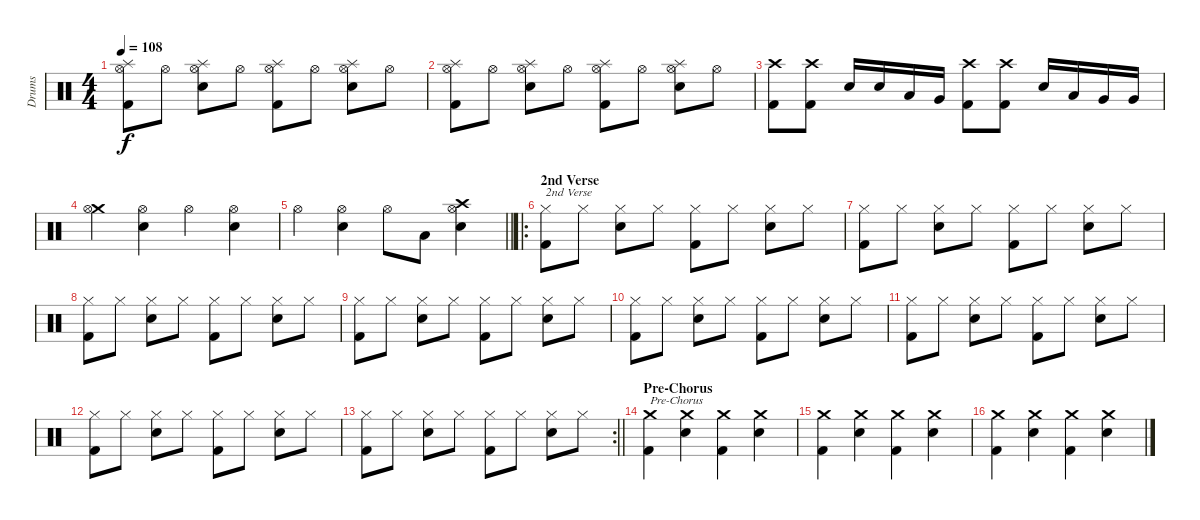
\track ("Drums" "Drums") {instrument percussion}
\staff {score}
\articulation defaults
\ts (4 4)
\tempo 108
\clef neutral
\ks c
("Splash (hit)" "Hi-Hat (open)" "Kick (hit) 2").8{dy f} "Hi-Hat (open)".8 ("Splash (hit)" "Hi-Hat (open)" "Snare (hit) 2").8 "Hi-Hat (open)".8 ("Splash (hit)" "Hi-Hat (open)" "Kick (hit) 2").8 "Hi-Hat (open)".8 ("Splash (hit)" "Hi-Hat (open)" "Snare (hit) 2").8 "Hi-Hat (open)".8 |
("Splash (hit)" "Hi-Hat (open)" "Kick (hit) 2").8 "Hi-Hat (open)".8 ("Splash (hit)" "Hi-Hat (open)" "Snare (hit) 2").8 "Hi-Hat (open)".8 ("Splash (hit)" "Hi-Hat (open)" "Kick (hit) 2").8 "Hi-Hat (open)".8 ("Splash (hit)" "Hi-Hat (open)" "Snare (hit) 2").8 "Hi-Hat (open)".8 |
("Crash high (hit)" "Kick (hit) 2").8 ("Crash high (hit)" "Kick (hit) 2").8 "Snare (hit) 2".16 "Snare (hit) 2".16 "Low Tom (hit)".16 "Very Low Tom (hit)".16 ("Crash high (hit)" "Kick (hit) 2").8 ("Crash high (hit)" "Kick (hit) 2").8 "Snare (hit) 2".16 "Low Tom (hit)".16 "Very Low Tom (hit)".16 "Very Low Tom (hit)".16 |
("Crash medium (hit)" "Hi-Hat (open)").4 ("Hi-Hat (open)" "Snare (hit) 2").4 "Hi-Hat (open)".4 ("Hi-Hat (open)" "Snare (hit) 2").4 |
\barLineRight lightlight "Hi-Hat (open)".4
("Hi-Hat (open)" "Snare (hit) 2").4 "Hi-Hat (open)".8 "Low Floor Tom (hit)".8 ("Crash high (hit)" "Hi-Hat (open)" "Snare (hit) 2").4 |
\ro
\section ("" "2nd Verse")
("Hi-Hat (closed)" "Kick (hit) 2").8{txt "2nd Verse"} "Hi-Hat (closed)".8 ("Hi-Hat (closed)" "Snare (hit) 2").8 "Hi-Hat (closed)".8 ("Hi-Hat (closed)" "Kick (hit) 2").8 "Hi-Hat (closed)".8 ("Hi-Hat (closed)" "Snare (hit) 2").8 "Hi-Hat (closed)".8 |
("Hi-Hat (closed)" "Kick (hit) 2").8 "Hi-Hat (closed)".8 ("Hi-Hat (closed)" "Snare (hit) 2").8 "Hi-Hat (closed)".8 ("Hi-Hat (closed)" "Kick (hit) 2").8 "Hi-Hat (closed)".8 ("Hi-Hat (closed)" "Snare (hit) 2").8 "Hi-Hat (closed)".8 |
("Hi-Hat (closed)" "Kick (hit) 2").8 "Hi-Hat (closed)".8 ("Hi-Hat (closed)" "Snare (hit) 2").8 "Hi-Hat (closed)".8 ("Hi-Hat (closed)" "Kick (hit) 2").8 "Hi-Hat (closed)".8 ("Hi-Hat (closed)" "Snare (hit) 2").8 "Hi-Hat (closed)".8 |
("Hi-Hat (closed)" "Kick (hit) 2").8 "Hi-Hat (closed)".8 ("Hi-Hat (closed)" "Snare (hit) 2").8 "Hi-Hat (closed)".8 ("Hi-Hat (closed)" "Kick (hit) 2").8 "Hi-Hat (closed)".8 ("Hi-Hat (closed)" "Snare (hit) 2").8 "Hi-Hat (closed)".8 |
("Hi-Hat (closed)" "Kick (hit) 2").8 "Hi-Hat (closed)".8 ("Hi-Hat (closed)" "Snare (hit) 2").8 "Hi-Hat (closed)".8 ("Hi-Hat (closed)" "Kick (hit) 2").8 "Hi-Hat (closed)".8 ("Hi-Hat (closed)" "Snare (hit) 2").8 "Hi-Hat (closed)".8 |
("Hi-Hat (closed)" "Kick (hit) 2").8 "Hi-Hat (closed)".8 ("Hi-Hat (closed)" "Snare (hit) 2").8 "Hi-Hat (closed)".8 ("Hi-Hat (closed)" "Kick (hit) 2").8 "Hi-Hat (closed)".8 ("Hi-Hat (closed)" "Snare (hit) 2").8 "Hi-Hat (closed)".8 |
("Hi-Hat (closed)" "Kick (hit) 2").8 "Hi-Hat (closed)".8 ("Hi-Hat (closed)" "Snare (hit) 2").8 "Hi-Hat (closed)".8 ("Hi-Hat (closed)" "Kick (hit) 2").8 "Hi-Hat (closed)".8 ("Hi-Hat (closed)" "Snare (hit) 2").8 "Hi-Hat (closed)".8 |
\rc 2
\barLineRight lightlight
("Hi-Hat (closed)" "Kick (hit) 2").8 "Hi-Hat (closed)".8 ("Hi-Hat (closed)" "Snare (hit) 2").8 "Hi-Hat (closed)".8 ("Hi-Hat (closed)" "Kick (hit) 2").8 "Hi-Hat (closed)".8 ("Hi-Hat (closed)" "Snare (hit) 2").8 "Hi-Hat (closed)".8 |
\section ("" "Pre-Chorus")
("Crash medium (hit)" "Kick (hit) 2").4{txt "Pre-Chorus"} ("Crash medium (hit)" "Snare (hit) 2").4 ("Crash medium (hit)" "Kick (hit) 2").4 ("Crash medium (hit)" "Snare (hit) 2").4 |
("Crash medium (hit)" "Kick (hit) 2").4 ("Crash medium (hit)" "Snare (hit) 2").4 ("Crash medium (hit)" "Kick (hit) 2").4 ("Crash medium (hit)" "Snare (hit) 2").4 |
("Crash medium (hit)" "Kick (hit) 2").4 ("Crash medium (hit)" "Snare (hit) 2").4 ("Crash medium (hit)" "Kick (hit) 2").4 ("Crash medium (hit)" "Snare (hit) 2").4
